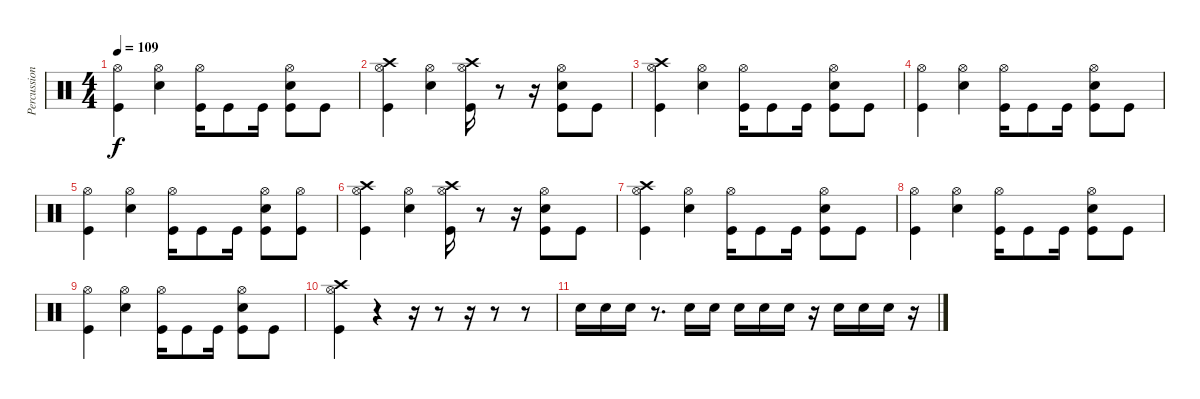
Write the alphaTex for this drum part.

\track ("Percussion" "Percussion") {instrument percussion}
\staff {score}
\articulation defaults
\ts (4 4)
\tempo 109
\clef neutral
\ks c
("Hi-Hat (open)" "Kick (hit)").4{dy f} ("Hi-Hat (open)" "Electric Snare (hit)").4 ("Hi-Hat (open)" "Kick (hit)").16 "Kick (hit)".8 "Kick (hit)".16 ("Hi-Hat (open)" "Electric Snare (hit)" "Kick (hit)").8 "Kick (hit)".8 |
("Crash high (hit)" "Hi-Hat (open)" "Kick (hit)").4 ("Hi-Hat (open)" "Electric Snare (hit)").4 ("Hi-Hat (open)" "Crash high (hit)" "Kick (hit)").16 r.8 r.16 ("Hi-Hat (open)" "Electric Snare (hit)" "Kick (hit)").8 "Kick (hit)".8 |
("Crash high (hit)" "Hi-Hat (open)" "Kick (hit)").4 ("Hi-Hat (open)" "Electric Snare (hit)").4 ("Hi-Hat (open)" "Kick (hit)").16 "Kick (hit)".8 "Kick (hit)".16 ("Hi-Hat (open)" "Electric Snare (hit)" "Kick (hit)").8 "Kick (hit)".8 |
("Hi-Hat (open)" "Kick (hit)").4 ("Hi-Hat (open)" "Electric Snare (hit)").4 ("Hi-Hat (open)" "Kick (hit)").16 "Kick (hit)".8 "Kick (hit)".16 ("Hi-Hat (open)" "Electric Snare (hit)" "Kick (hit)").8 "Kick (hit)".8 |
("Hi-Hat (open)" "Kick (hit)").4 ("Hi-Hat (open)" "Electric Snare (hit)").4 ("Hi-Hat (open)" "Kick (hit)").16 "Kick (hit)".8 "Kick (hit)".16 ("Hi-Hat (open)" "Electric Snare (hit)" "Kick (hit)").8 ("Hi-Hat (open)" "Kick (hit)").8 |
("Crash high (hit)" "Hi-Hat (open)" "Kick (hit)").4 ("Hi-Hat (open)" "Electric Snare (hit)").4 ("Hi-Hat (open)" "Crash high (hit)" "Kick (hit)").16 r.8 r.16 ("Hi-Hat (open)" "Electric Snare (hit)" "Kick (hit)").8 "Kick (hit)".8 |
("Crash high (hit)" "Hi-Hat (open)" "Kick (hit)").4 ("Hi-Hat (open)" "Electric Snare (hit)").4 ("Hi-Hat (open)" "Kick (hit)").16 "Kick (hit)".8 "Kick (hit)".16 ("Hi-Hat (open)" "Electric Snare (hit)" "Kick (hit)").8 "Kick (hit)".8 |
("Hi-Hat (open)" "Kick (hit)").4 ("Hi-Hat (open)" "Electric Snare (hit)").4 ("Hi-Hat (open)" "Kick (hit)").16 "Kick (hit)".8 "Kick (hit)".16 ("Hi-Hat (open)" "Electric Snare (hit)" "Kick (hit)").8 "Kick (hit)".8 |
("Hi-Hat (open)" "Kick (hit)").4 ("Hi-Hat (open)" "Electric Snare (hit)").4 ("Hi-Hat (open)" "Kick (hit)").16 "Kick (hit)".8 "Kick (hit)".16 ("Hi-Hat (open)" "Electric Snare (hit)" "Kick (hit)").8 "Kick (hit)".8 |
("Crash high (hit)" "Hi-Hat (open)" "Kick (hit)").4 r.4 r.16 r.8 r.16 r.8 r.8 |
"Electric Snare (hit)".16 "Electric Snare (hit)".16 "Electric Snare (hit)".16 r.8{d} "Electric Snare (hit)".16 "Electric Snare (hit)".16 "Electric Snare (hit)".16 "Electric Snare (hit)".16 "Electric Snare (hit)".16 r.16 "Electric Snare (hit)".16 "Electric Snare (hit)".16 "Electric Snare (hit)".16 r.16
